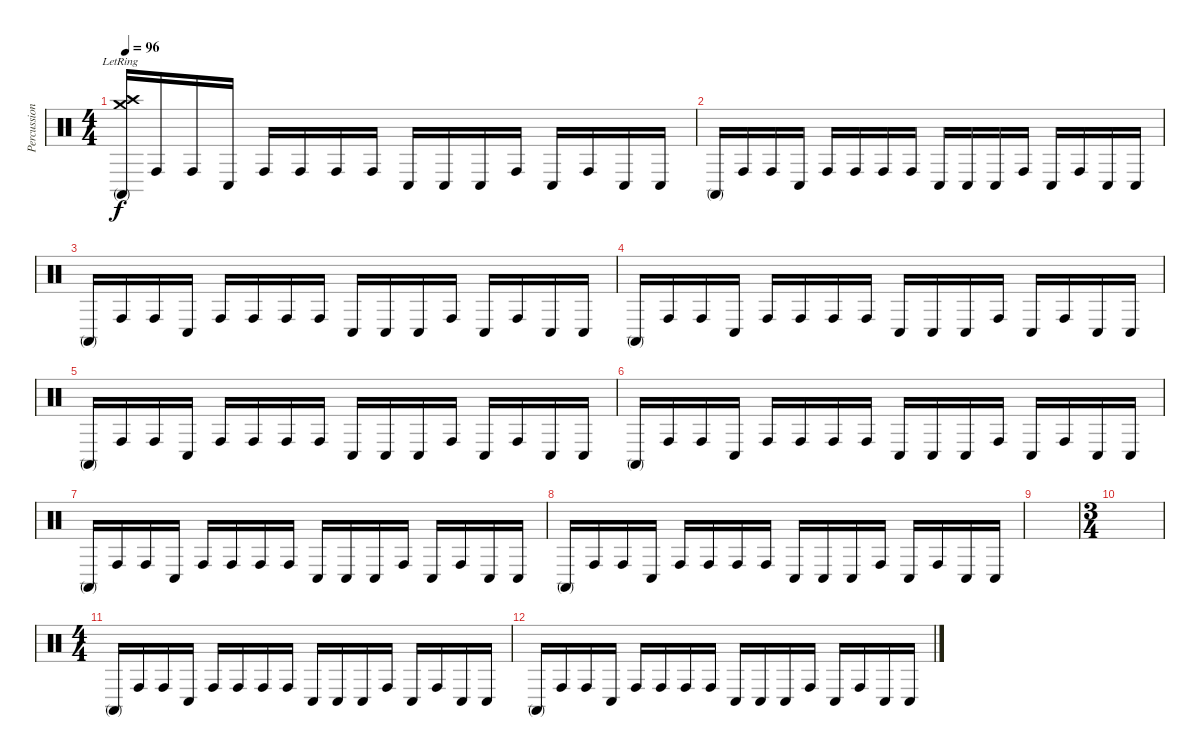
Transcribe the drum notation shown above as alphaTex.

\track ("Percussions" "Percussion") {instrument percussion}
\staff {score}
\articulation defaults
\ts (4 4)
\tempo 96
\clef neutral
\ks c
("Conga high (mute)" "Crash medium (hit)"{lr} "Crash high (hit)"{lr}).16{dy f} "Conga high (hit)".16 "Conga high (hit)".16 "Conga low (hit)".16 "Conga high (hit)".16 "Conga high (hit)".16 "Conga high (hit)".16 "Conga high (hit)".16 "Conga low (hit)".16 "Conga low (hit)".16 "Conga low (hit)".16 "Conga high (hit)".16 "Conga low (hit)".16 "Conga high (hit)".16 "Conga low (hit)".16 "Conga low (hit)".16 |
"Conga high (mute)".16 "Conga high (hit)".16 "Conga high (hit)".16 "Conga low (hit)".16 "Conga high (hit)".16 "Conga high (hit)".16 "Conga high (hit)".16 "Conga high (hit)".16 "Conga low (hit)".16 "Conga low (hit)".16 "Conga low (hit)".16 "Conga high (hit)".16 "Conga low (hit)".16 "Conga high (hit)".16 "Conga low (hit)".16 "Conga low (hit)".16 |
"Conga high (mute)".16 "Conga high (hit)".16 "Conga high (hit)".16 "Conga low (hit)".16 "Conga high (hit)".16 "Conga high (hit)".16 "Conga high (hit)".16 "Conga high (hit)".16 "Conga low (hit)".16 "Conga low (hit)".16 "Conga low (hit)".16 "Conga high (hit)".16 "Conga low (hit)".16 "Conga high (hit)".16 "Conga low (hit)".16 "Conga low (hit)".16 |
"Conga high (mute)".16 "Conga high (hit)".16 "Conga high (hit)".16 "Conga low (hit)".16 "Conga high (hit)".16 "Conga high (hit)".16 "Conga high (hit)".16 "Conga high (hit)".16 "Conga low (hit)".16 "Conga low (hit)".16 "Conga low (hit)".16 "Conga high (hit)".16 "Conga low (hit)".16 "Conga high (hit)".16 "Conga low (hit)".16 "Conga low (hit)".16 |
"Conga high (mute)".16 "Conga high (hit)".16 "Conga high (hit)".16 "Conga low (hit)".16 "Conga high (hit)".16 "Conga high (hit)".16 "Conga high (hit)".16 "Conga high (hit)".16 "Conga low (hit)".16 "Conga low (hit)".16 "Conga low (hit)".16 "Conga high (hit)".16 "Conga low (hit)".16 "Conga high (hit)".16 "Conga low (hit)".16 "Conga low (hit)".16 |
"Conga high (mute)".16 "Conga high (hit)".16 "Conga high (hit)".16 "Conga low (hit)".16 "Conga high (hit)".16 "Conga high (hit)".16 "Conga high (hit)".16 "Conga high (hit)".16 "Conga low (hit)".16 "Conga low (hit)".16 "Conga low (hit)".16 "Conga high (hit)".16 "Conga low (hit)".16 "Conga high (hit)".16 "Conga low (hit)".16 "Conga low (hit)".16 |
"Conga high (mute)".16 "Conga high (hit)".16 "Conga high (hit)".16 "Conga low (hit)".16 "Conga high (hit)".16 "Conga high (hit)".16 "Conga high (hit)".16 "Conga high (hit)".16 "Conga low (hit)".16 "Conga low (hit)".16 "Conga low (hit)".16 "Conga high (hit)".16 "Conga low (hit)".16 "Conga high (hit)".16 "Conga low (hit)".16 "Conga low (hit)".16 |
"Conga high (mute)".16 "Conga high (hit)".16 "Conga high (hit)".16 "Conga low (hit)".16 "Conga high (hit)".16 "Conga high (hit)".16 "Conga high (hit)".16 "Conga high (hit)".16 "Conga low (hit)".16 "Conga low (hit)".16 "Conga low (hit)".16 "Conga high (hit)".16 "Conga low (hit)".16 "Conga high (hit)".16 "Conga low (hit)".16 "Conga low (hit)".16 |
|
\ts (3 4)
|
\ts (4 4)
"Conga high (mute)".16 "Conga high (hit)".16 "Conga high (hit)".16 "Conga low (hit)".16 "Conga high (hit)".16 "Conga high (hit)".16 "Conga high (hit)".16 "Conga high (hit)".16 "Conga low (hit)".16 "Conga low (hit)".16 "Conga low (hit)".16 "Conga high (hit)".16 "Conga low (hit)".16 "Conga high (hit)".16 "Conga low (hit)".16 "Conga low (hit)".16 |
"Conga high (mute)".16 "Conga high (hit)".16 "Conga high (hit)".16 "Conga low (hit)".16 "Conga high (hit)".16 "Conga high (hit)".16 "Conga high (hit)".16 "Conga high (hit)".16 "Conga low (hit)".16 "Conga low (hit)".16 "Conga low (hit)".16 "Conga high (hit)".16 "Conga low (hit)".16 "Conga high (hit)".16 "Conga low (hit)".16 "Conga low (hit)".16
